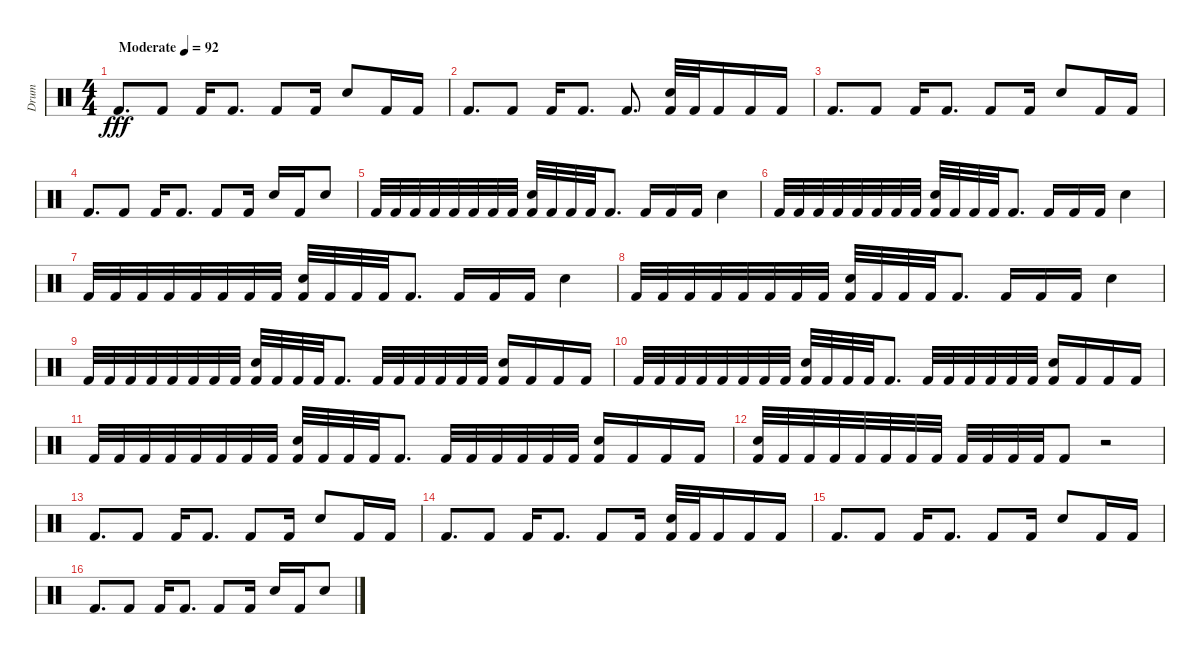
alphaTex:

\track ("Drum" "Drum") {instrument percussion}
\staff {score}
\articulation defaults
\ts (4 4)
\tempo (92 "Moderate")
\clef neutral
\ks c "Kick (hit) 2".8{d dy fff} "Kick (hit) 2".8 "Kick (hit) 2".16 "Kick (hit) 2".8{d} "Kick (hit) 2".8 "Kick (hit) 2".16 "Electric Snare (hit)".8 "Kick (hit) 2".16 "Kick (hit) 2".16
|
"Kick (hit) 2".8{d} "Kick (hit) 2".8 "Kick (hit) 2".16 "Kick (hit) 2".8{d} "Kick (hit) 2".8{d} ("Electric Snare (hit)" "Kick (hit) 2").32 "Kick (hit) 2".32 "Kick (hit) 2".16 "Kick (hit) 2".16 "Kick (hit) 2".16 |
"Kick (hit) 2".8{d} "Kick (hit) 2".8 "Kick (hit) 2".16 "Kick (hit) 2".8{d} "Kick (hit) 2".8 "Kick (hit) 2".16 "Electric Snare (hit)".8 "Kick (hit) 2".16 "Kick (hit) 2".16 |
"Kick (hit) 2".8{d} "Kick (hit) 2".8 "Kick (hit) 2".16 "Kick (hit) 2".8{d} "Kick (hit) 2".8 "Kick (hit) 2".16 "Electric Snare (hit)".16 "Kick (hit) 2".16 "Electric Snare (hit)".8 |
"Kick (hit) 2".32 "Kick (hit) 2".32 "Kick (hit) 2".32 "Kick (hit) 2".32 "Kick (hit) 2".32 "Kick (hit) 2".32 "Kick (hit) 2".32 "Kick (hit) 2".32 ("Electric Snare (hit)" "Kick (hit) 2").32 "Kick (hit) 2".32 "Kick (hit) 2".32 "Kick (hit) 2".32 "Kick (hit) 2".8{d} "Kick (hit) 2".16 "Kick (hit) 2".16 "Kick (hit) 2".16 "Electric Snare (hit)".4 |
"Kick (hit) 2".32 "Kick (hit) 2".32 "Kick (hit) 2".32 "Kick (hit) 2".32 "Kick (hit) 2".32 "Kick (hit) 2".32 "Kick (hit) 2".32 "Kick (hit) 2".32 ("Electric Snare (hit)" "Kick (hit) 2").32 "Kick (hit) 2".32 "Kick (hit) 2".32 "Kick (hit) 2".32 "Kick (hit) 2".8{d} "Kick (hit) 2".16 "Kick (hit) 2".16 "Kick (hit) 2".16 "Electric Snare (hit)".4 |
"Kick (hit) 2".32 "Kick (hit) 2".32 "Kick (hit) 2".32 "Kick (hit) 2".32 "Kick (hit) 2".32 "Kick (hit) 2".32 "Kick (hit) 2".32 "Kick (hit) 2".32 ("Electric Snare (hit)" "Kick (hit) 2").32 "Kick (hit) 2".32 "Kick (hit) 2".32 "Kick (hit) 2".32 "Kick (hit) 2".8{d} "Kick (hit) 2".16 "Kick (hit) 2".16 "Kick (hit) 2".16 "Electric Snare (hit)".4 |
"Kick (hit) 2".32 "Kick (hit) 2".32 "Kick (hit) 2".32 "Kick (hit) 2".32 "Kick (hit) 2".32 "Kick (hit) 2".32 "Kick (hit) 2".32 "Kick (hit) 2".32 ("Electric Snare (hit)" "Kick (hit) 2").32 "Kick (hit) 2".32 "Kick (hit) 2".32 "Kick (hit) 2".32 "Kick (hit) 2".8{d} "Kick (hit) 2".16 "Kick (hit) 2".16 "Kick (hit) 2".16 "Electric Snare (hit)".4 |
"Kick (hit) 2".32 "Kick (hit) 2".32 "Kick (hit) 2".32 "Kick (hit) 2".32 "Kick (hit) 2".32 "Kick (hit) 2".32 "Kick (hit) 2".32 "Kick (hit) 2".32 ("Electric Snare (hit)" "Kick (hit) 2").32 "Kick (hit) 2".32 "Kick (hit) 2".32 "Kick (hit) 2".32 "Kick (hit) 2".8{d} "Kick (hit) 2".32 "Kick (hit) 2".32 "Kick (hit) 2".32 "Kick (hit) 2".32 "Kick (hit) 2".32 "Kick (hit) 2".32 ("Electric Snare (hit)" "Kick (hit) 2").16 "Kick (hit) 2".16 "Kick (hit) 2".16 "Kick (hit) 2".16 |
"Kick (hit) 2".32 "Kick (hit) 2".32 "Kick (hit) 2".32 "Kick (hit) 2".32 "Kick (hit) 2".32 "Kick (hit) 2".32 "Kick (hit) 2".32 "Kick (hit) 2".32 ("Electric Snare (hit)" "Kick (hit) 2").32 "Kick (hit) 2".32 "Kick (hit) 2".32 "Kick (hit) 2".32 "Kick (hit) 2".8{d} "Kick (hit) 2".32 "Kick (hit) 2".32 "Kick (hit) 2".32 "Kick (hit) 2".32 "Kick (hit) 2".32 "Kick (hit) 2".32 ("Electric Snare (hit)" "Kick (hit) 2").16 "Kick (hit) 2".16 "Kick (hit) 2".16 "Kick (hit) 2".16 |
"Kick (hit) 2".32 "Kick (hit) 2".32 "Kick (hit) 2".32 "Kick (hit) 2".32 "Kick (hit) 2".32 "Kick (hit) 2".32 "Kick (hit) 2".32 "Kick (hit) 2".32 ("Electric Snare (hit)" "Kick (hit) 2").32 "Kick (hit) 2".32 "Kick (hit) 2".32 "Kick (hit) 2".32 "Kick (hit) 2".8{d} "Kick (hit) 2".32 "Kick (hit) 2".32 "Kick (hit) 2".32 "Kick (hit) 2".32 "Kick (hit) 2".32 "Kick (hit) 2".32 ("Electric Snare (hit)" "Kick (hit) 2").16 "Kick (hit) 2".16 "Kick (hit) 2".16 "Kick (hit) 2".16 |
("Electric Snare (hit)" "Kick (hit) 2").32 "Kick (hit) 2".32 "Kick (hit) 2".32 "Kick (hit) 2".32 "Kick (hit) 2".32 "Kick (hit) 2".32 "Kick (hit) 2".32 "Kick (hit) 2".32 "Kick (hit) 2".32 "Kick (hit) 2".32 "Kick (hit) 2".32 "Kick (hit) 2".32 "Kick (hit) 2".8 r.2 |
"Kick (hit) 2".8{d} "Kick (hit) 2".8 "Kick (hit) 2".16 "Kick (hit) 2".8{d} "Kick (hit) 2".8 "Kick (hit) 2".16 "Electric Snare (hit)".8 "Kick (hit) 2".16 "Kick (hit) 2".16 |
"Kick (hit) 2".8{d} "Kick (hit) 2".8 "Kick (hit) 2".16 "Kick (hit) 2".8{d} "Kick (hit) 2".8 "Kick (hit) 2".16 ("Electric Snare (hit)" "Kick (hit) 2").32 "Kick (hit) 2".32 "Kick (hit) 2".16 "Kick (hit) 2".16 "Kick (hit) 2".16 |
"Kick (hit) 2".8{d} "Kick (hit) 2".8 "Kick (hit) 2".16 "Kick (hit) 2".8{d} "Kick (hit) 2".8 "Kick (hit) 2".16 "Electric Snare (hit)".8 "Kick (hit) 2".16 "Kick (hit) 2".16 |
"Kick (hit) 2".8{d} "Kick (hit) 2".8 "Kick (hit) 2".16 "Kick (hit) 2".8{d} "Kick (hit) 2".8 "Kick (hit) 2".16 "Electric Snare (hit)".16 "Kick (hit) 2".16 "Electric Snare (hit)".8
